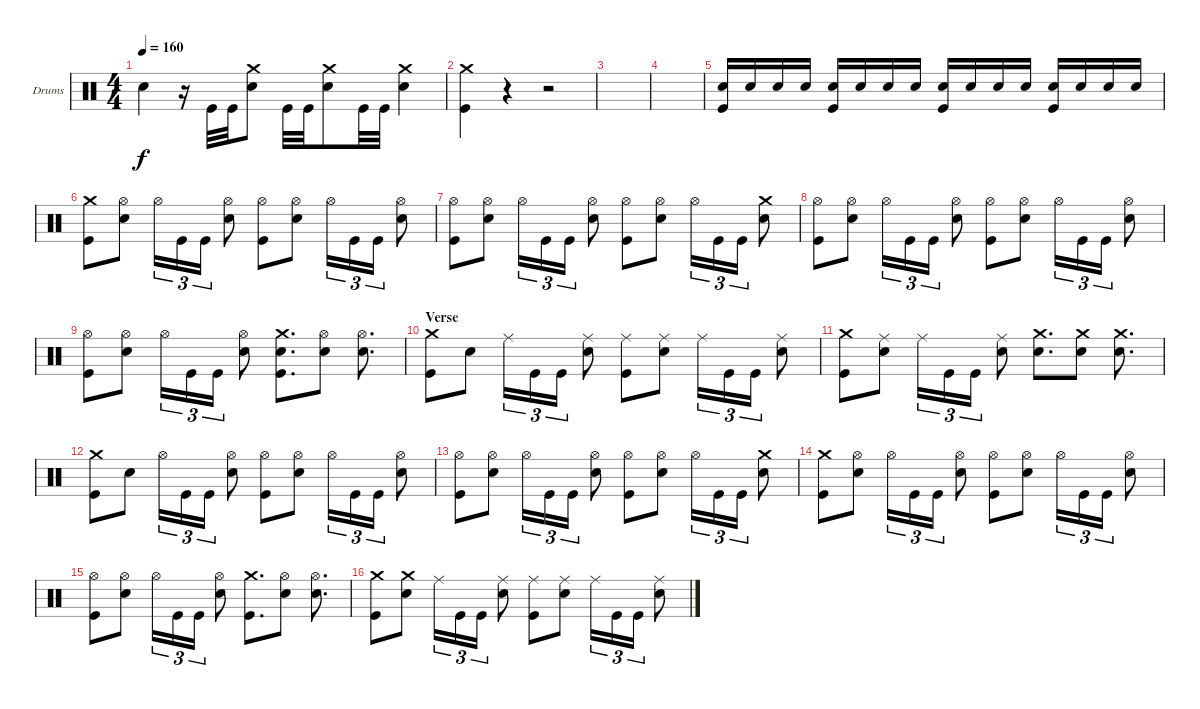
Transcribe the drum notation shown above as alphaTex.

\bracketExtendMode groupsimilarinstruments
\firstSystemTrackNameOrientation horizontal
\otherSystemsTrackNameOrientation horizontal
\track ("Drums" "Drums") {instrument percussion}
\staff {score}
\articulation defaults
\ts (4 4)
\tempo 160
\clef neutral
\ks c "Snare (hit) 2".4{dy f}
r.16 "Kick (hit)".32 "Kick (hit)".32 ("Crash medium (hit)" "Snare (hit) 2").8 "Kick (hit)".32 "Kick (hit)".32 ("Crash medium (hit)" "Snare (hit) 2").8 "Kick (hit)".32 "Kick (hit)".32 ("Crash medium (hit)" "Snare (hit) 2").4 |
("Crash medium (hit)" "Kick (hit)").4 r.4 r.2 |
|
|
("Snare (hit) 2" "Kick (hit)").16 "Snare (hit) 2".16 "Snare (hit) 2".16 "Snare (hit) 2".16 ("Snare (hit) 2" "Kick (hit)").16 "Snare (hit) 2".16 "Snare (hit) 2".16 "Snare (hit) 2".16 ("Snare (hit) 2" "Kick (hit)").16 "Snare (hit) 2".16 "Snare (hit) 2".16 "Snare (hit) 2".16 ("Snare (hit) 2" "Kick (hit)").16 "Snare (hit) 2".16 "Snare (hit) 2".16 "Snare (hit) 2".16 |
("Crash medium (hit)" "Kick (hit)").8 ("Hi-Hat (open)" "Snare (hit) 2").8 "Hi-Hat (open)".16{tu (3 2)} "Kick (hit)".16{tu (3 2)} "Kick (hit)".16{tu (3 2)} ("Hi-Hat (open)" "Snare (hit) 2").8 ("Hi-Hat (open)" "Kick (hit)").8 ("Hi-Hat (open)" "Snare (hit) 2").8 "Hi-Hat (open)".16{tu (3 2)} "Kick (hit)".16{tu (3 2)} "Kick (hit)".16{tu (3 2)} ("Hi-Hat (open)" "Snare (hit) 2").8 |
("Hi-Hat (open)" "Kick (hit)").8 ("Hi-Hat (open)" "Snare (hit) 2").8 "Hi-Hat (open)".16{tu (3 2)} "Kick (hit)".16{tu (3 2)} "Kick (hit)".16{tu (3 2)} ("Hi-Hat (open)" "Snare (hit) 2").8 ("Hi-Hat (open)" "Kick (hit)").8 ("Hi-Hat (open)" "Snare (hit) 2").8 "Hi-Hat (open)".16{tu (3 2)} "Kick (hit)".16{tu (3 2)} "Kick (hit)".16{tu (3 2)} ("Crash medium (hit)" "Snare (hit) 2").8 |
("Kick (hit)" "Hi-Hat (open)").8 ("Hi-Hat (open)" "Snare (hit) 2").8 "Hi-Hat (open)".16{tu (3 2)} "Kick (hit)".16{tu (3 2)} "Kick (hit)".16{tu (3 2)} ("Hi-Hat (open)" "Snare (hit) 2").8 ("Hi-Hat (open)" "Kick (hit)").8 ("Hi-Hat (open)" "Snare (hit) 2").8 "Hi-Hat (open)".16{tu (3 2)} "Kick (hit)".16{tu (3 2)} "Kick (hit)".16{tu (3 2)} ("Hi-Hat (open)" "Snare (hit) 2").8 |
("Hi-Hat (open)" "Kick (hit)").8 ("Hi-Hat (open)" "Snare (hit) 2").8 "Hi-Hat (open)".16{tu (3 2)} "Kick (hit)".16{tu (3 2)} "Kick (hit)".16{tu (3 2)} ("Hi-Hat (open)" "Snare (hit) 2").8 ("Crash medium (hit)" "Kick (hit)" "Snare (hit) 2").8{d} ("Hi-Hat (open)" "Snare (hit) 2").8 ("Hi-Hat (open)" "Snare (hit) 2").8{d} |
\section ("" "Verse")
("Crash medium (hit)" "Kick (hit)").8 "Snare (hit) 2".8 "Ride (middle)".16{tu (3 2)} "Kick (hit)".16{tu (3 2)} "Kick (hit)".16{tu (3 2)} ("Ride (middle)" "Snare (hit) 2").8 ("Ride (middle)" "Kick (hit)").8 ("Ride (middle)" "Snare (hit) 2").8 "Ride (middle)".16{tu (3 2)} "Kick (hit)".16{tu (3 2)} "Kick (hit)".16{tu (3 2)} ("Ride (middle)" "Snare (hit) 2").8 |
("Crash medium (hit)" "Kick (hit)").8 ("Ride (middle)" "Snare (hit) 2").8 "Ride (middle)".16{tu (3 2)} "Kick (hit)".16{tu (3 2)} "Kick (hit)".16{tu (3 2)} ("Ride (middle)" "Snare (hit) 2").8 ("Crash medium (hit)" "Snare (hit) 2").8{d} ("Crash medium (hit)" "Snare (hit) 2").8 ("Crash medium (hit)" "Snare (hit) 2").8{d} |
("Crash medium (hit)" "Kick (hit)").8 "Snare (hit) 2".8 "Hi-Hat (open)".16{tu (3 2)} "Kick (hit)".16{tu (3 2)} "Kick (hit)".16{tu (3 2)} ("Hi-Hat (open)" "Snare (hit) 2").8 ("Hi-Hat (open)" "Kick (hit)").8 ("Hi-Hat (open)" "Snare (hit) 2").8 "Hi-Hat (open)".16{tu (3 2)} "Kick (hit)".16{tu (3 2)} "Kick (hit)".16{tu (3 2)} ("Hi-Hat (open)" "Snare (hit) 2").8 |
("Hi-Hat (open)" "Kick (hit)").8 ("Hi-Hat (open)" "Snare (hit) 2").8 "Hi-Hat (open)".16{tu (3 2)} "Kick (hit)".16{tu (3 2)} "Kick (hit)".16{tu (3 2)} ("Hi-Hat (open)" "Snare (hit) 2").8 ("Hi-Hat (open)" "Kick (hit)").8 ("Hi-Hat (open)" "Snare (hit) 2").8 "Hi-Hat (open)".16{tu (3 2)} "Kick (hit)".16{tu (3 2)} "Kick (hit)".16{tu (3 2)} ("Crash medium (hit)" "Snare (hit) 2").8 |
("Crash medium (hit)" "Kick (hit)").8 ("Hi-Hat (open)" "Snare (hit) 2").8 "Hi-Hat (open)".16{tu (3 2)} "Kick (hit)".16{tu (3 2)} "Kick (hit)".16{tu (3 2)} ("Hi-Hat (open)" "Snare (hit) 2").8 ("Hi-Hat (open)" "Kick (hit)").8 ("Hi-Hat (open)" "Snare (hit) 2").8 "Hi-Hat (open)".16{tu (3 2)} "Kick (hit)".16{tu (3 2)} "Kick (hit)".16{tu (3 2)} ("Hi-Hat (open)" "Snare (hit) 2").8 |
("Hi-Hat (open)" "Kick (hit)").8 ("Hi-Hat (open)" "Snare (hit) 2").8 "Hi-Hat (open)".16{tu (3 2)} "Kick (hit)".16{tu (3 2)} "Kick (hit)".16{tu (3 2)} ("Hi-Hat (open)" "Snare (hit) 2").8 ("Crash medium (hit)" "Kick (hit)").8{d} ("Hi-Hat (open)" "Snare (hit) 2").8 ("Hi-Hat (open)" "Snare (hit) 2").8{d} |
("Crash medium (hit)" "Kick (hit)").8 ("Crash medium (hit)" "Snare (hit) 2").8 "Ride (middle)".16{tu (3 2)} "Kick (hit)".16{tu (3 2)} "Kick (hit)".16{tu (3 2)} ("Ride (middle)" "Snare (hit) 2").8 ("Ride (middle)" "Kick (hit)").8 ("Ride (middle)" "Snare (hit) 2").8 "Ride (middle)".16{tu (3 2)} "Kick (hit)".16{tu (3 2)} "Kick (hit)".16{tu (3 2)} ("Ride (middle)" "Snare (hit) 2").8
